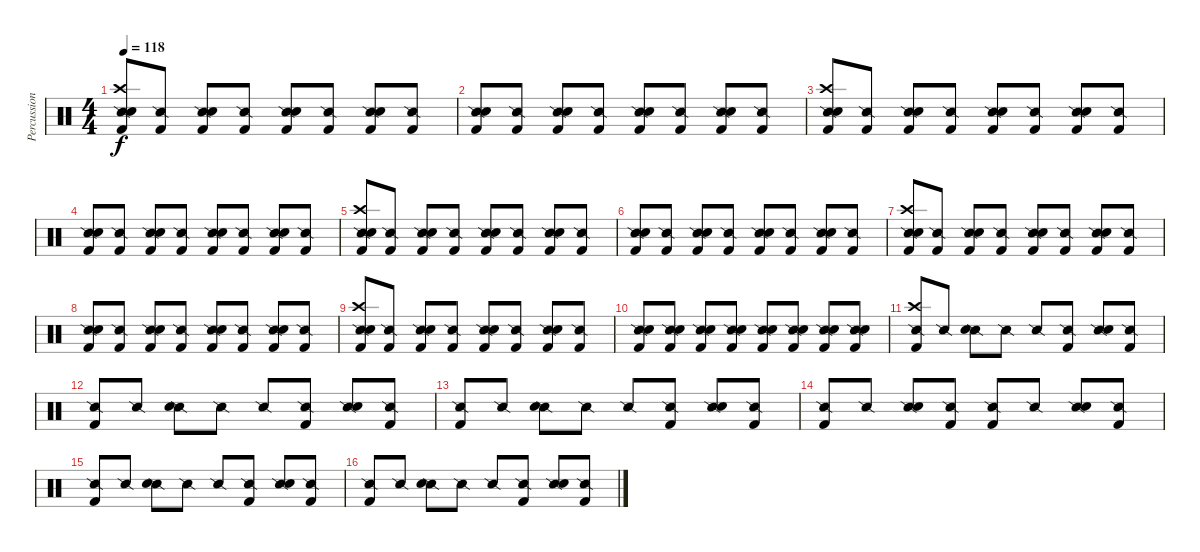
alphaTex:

\track ("Percussion" "Percussion") {instrument percussion}
\staff {score}
\articulation defaults
\ts (4 4)
\tempo 118
\clef neutral
\ks c
("Snare (side stick) 2" "Crash high (hit)" "Electric Snare (hit)" "Kick (hit) 2").8{dy f} ("Snare (side stick) 2" "Kick (hit) 2").8 ("Snare (side stick) 2" "Electric Snare (hit)" "Kick (hit) 2").8 ("Snare (side stick) 2" "Kick (hit) 2").8 ("Snare (side stick) 2" "Electric Snare (hit)" "Kick (hit) 2").8 ("Snare (side stick) 2" "Kick (hit) 2").8 ("Snare (side stick) 2" "Electric Snare (hit)" "Kick (hit) 2").8 ("Snare (side stick) 2" "Kick (hit) 2").8 |
("Snare (side stick) 2" "Electric Snare (hit)" "Kick (hit) 2").8 ("Snare (side stick) 2" "Kick (hit) 2").8 ("Snare (side stick) 2" "Electric Snare (hit)" "Kick (hit) 2").8 ("Snare (side stick) 2" "Kick (hit) 2").8 ("Snare (side stick) 2" "Electric Snare (hit)" "Kick (hit) 2").8 ("Snare (side stick) 2" "Kick (hit) 2").8 ("Snare (side stick) 2" "Electric Snare (hit)" "Kick (hit) 2").8 ("Snare (side stick) 2" "Kick (hit) 2").8 |
("Snare (side stick) 2" "Crash high (hit)" "Electric Snare (hit)" "Kick (hit) 2").8 ("Snare (side stick) 2" "Kick (hit) 2").8 ("Snare (side stick) 2" "Electric Snare (hit)" "Kick (hit) 2").8 ("Snare (side stick) 2" "Kick (hit) 2").8 ("Snare (side stick) 2" "Electric Snare (hit)" "Kick (hit) 2").8 ("Snare (side stick) 2" "Kick (hit) 2").8 ("Snare (side stick) 2" "Electric Snare (hit)" "Kick (hit) 2").8 ("Snare (side stick) 2" "Kick (hit) 2").8 |
("Snare (side stick) 2" "Electric Snare (hit)" "Kick (hit) 2").8 ("Snare (side stick) 2" "Kick (hit) 2").8 ("Snare (side stick) 2" "Electric Snare (hit)" "Kick (hit) 2").8 ("Snare (side stick) 2" "Kick (hit) 2").8 ("Snare (side stick) 2" "Electric Snare (hit)" "Kick (hit) 2").8 ("Snare (side stick) 2" "Kick (hit) 2").8 ("Snare (side stick) 2" "Electric Snare (hit)" "Kick (hit) 2").8 ("Snare (side stick) 2" "Kick (hit) 2").8 |
("Snare (side stick) 2" "Crash high (hit)" "Electric Snare (hit)" "Kick (hit) 2").8 ("Snare (side stick) 2" "Kick (hit) 2").8 ("Snare (side stick) 2" "Electric Snare (hit)" "Kick (hit) 2").8 ("Snare (side stick) 2" "Kick (hit) 2").8 ("Snare (side stick) 2" "Electric Snare (hit)" "Kick (hit) 2").8 ("Snare (side stick) 2" "Kick (hit) 2").8 ("Snare (side stick) 2" "Electric Snare (hit)" "Kick (hit) 2").8 ("Snare (side stick) 2" "Kick (hit) 2").8 |
("Snare (side stick) 2" "Electric Snare (hit)" "Kick (hit) 2").8 ("Snare (side stick) 2" "Kick (hit) 2").8 ("Snare (side stick) 2" "Electric Snare (hit)" "Kick (hit) 2").8 ("Snare (side stick) 2" "Kick (hit) 2").8 ("Snare (side stick) 2" "Electric Snare (hit)" "Kick (hit) 2").8 ("Snare (side stick) 2" "Kick (hit) 2").8 ("Snare (side stick) 2" "Electric Snare (hit)" "Kick (hit) 2").8 ("Snare (side stick) 2" "Kick (hit) 2").8 |
("Snare (side stick) 2" "Crash high (hit)" "Electric Snare (hit)" "Kick (hit) 2").8 ("Snare (side stick) 2" "Kick (hit) 2").8 ("Snare (side stick) 2" "Electric Snare (hit)" "Kick (hit) 2").8 ("Snare (side stick) 2" "Kick (hit) 2").8 ("Snare (side stick) 2" "Electric Snare (hit)" "Kick (hit) 2").8 ("Snare (side stick) 2" "Kick (hit) 2").8 ("Snare (side stick) 2" "Electric Snare (hit)" "Kick (hit) 2").8 ("Snare (side stick) 2" "Kick (hit) 2").8 |
("Snare (side stick) 2" "Electric Snare (hit)" "Kick (hit) 2").8 ("Snare (side stick) 2" "Kick (hit) 2").8 ("Snare (side stick) 2" "Electric Snare (hit)" "Kick (hit) 2").8 ("Snare (side stick) 2" "Kick (hit) 2").8 ("Snare (side stick) 2" "Electric Snare (hit)" "Kick (hit) 2").8 ("Snare (side stick) 2" "Kick (hit) 2").8 ("Snare (side stick) 2" "Electric Snare (hit)" "Kick (hit) 2").8 ("Snare (side stick) 2" "Kick (hit) 2").8 |
("Snare (side stick) 2" "Crash high (hit)" "Electric Snare (hit)" "Kick (hit) 2").8 ("Snare (side stick) 2" "Kick (hit) 2").8 ("Snare (side stick) 2" "Electric Snare (hit)" "Kick (hit) 2").8 ("Snare (side stick) 2" "Kick (hit) 2").8 ("Snare (side stick) 2" "Electric Snare (hit)" "Kick (hit) 2").8 ("Snare (side stick) 2" "Kick (hit) 2").8 ("Snare (side stick) 2" "Electric Snare (hit)" "Kick (hit) 2").8 ("Snare (side stick) 2" "Kick (hit) 2").8 |
("Snare (side stick) 2" "Electric Snare (hit)" "Kick (hit) 2").8 ("Snare (side stick) 2" "Electric Snare (hit)" "Kick (hit) 2").8 ("Snare (side stick) 2" "Electric Snare (hit)" "Kick (hit) 2").8 ("Snare (side stick) 2" "Electric Snare (hit)" "Kick (hit) 2").8 ("Snare (side stick) 2" "Electric Snare (hit)" "Kick (hit) 2").8 ("Snare (side stick) 2" "Electric Snare (hit)" "Kick (hit) 2").8 ("Snare (side stick) 2" "Electric Snare (hit)" "Kick (hit) 2").8 ("Snare (side stick) 2" "Electric Snare (hit)" "Kick (hit) 2").8 |
("Snare (side stick) 2" "Crash high (hit)" "Kick (hit) 2").8 "Snare (side stick) 2".8 ("Snare (side stick) 2" "Electric Snare (hit)").8 "Snare (side stick) 2".8 "Snare (side stick) 2".8 ("Snare (side stick) 2" "Kick (hit) 2").8 ("Snare (side stick) 2" "Electric Snare (hit)").8 ("Snare (side stick) 2" "Kick (hit) 2").8 |
("Snare (side stick) 2" "Kick (hit) 2").8 "Snare (side stick) 2".8 ("Snare (side stick) 2" "Electric Snare (hit)").8 "Snare (side stick) 2".8 "Snare (side stick) 2".8 ("Snare (side stick) 2" "Kick (hit) 2").8 ("Snare (side stick) 2" "Electric Snare (hit)").8 ("Snare (side stick) 2" "Kick (hit) 2").8 |
("Snare (side stick) 2" "Kick (hit) 2").8 "Snare (side stick) 2".8 ("Snare (side stick) 2" "Electric Snare (hit)").8 "Snare (side stick) 2".8 "Snare (side stick) 2".8 ("Snare (side stick) 2" "Kick (hit) 2").8 ("Snare (side stick) 2" "Electric Snare (hit)").8 ("Snare (side stick) 2" "Kick (hit) 2").8 |
("Snare (side stick) 2" "Kick (hit) 2").8 "Snare (side stick) 2".8 ("Snare (side stick) 2" "Electric Snare (hit)").8 ("Snare (side stick) 2" "Kick (hit) 2").8 ("Snare (side stick) 2" "Kick (hit) 2").8 "Snare (side stick) 2".8 ("Snare (side stick) 2" "Electric Snare (hit)").8 ("Snare (side stick) 2" "Kick (hit) 2").8 |
("Snare (side stick) 2" "Kick (hit) 2").8 "Snare (side stick) 2".8 ("Snare (side stick) 2" "Electric Snare (hit)").8 "Snare (side stick) 2".8 "Snare (side stick) 2".8 ("Snare (side stick) 2" "Kick (hit) 2").8 ("Snare (side stick) 2" "Electric Snare (hit)").8 ("Snare (side stick) 2" "Kick (hit) 2").8 |
("Snare (side stick) 2" "Kick (hit) 2").8 "Snare (side stick) 2".8 ("Snare (side stick) 2" "Electric Snare (hit)").8 "Snare (side stick) 2".8 "Snare (side stick) 2".8 ("Snare (side stick) 2" "Kick (hit) 2").8 ("Snare (side stick) 2" "Electric Snare (hit)").8 ("Snare (side stick) 2" "Kick (hit) 2").8
